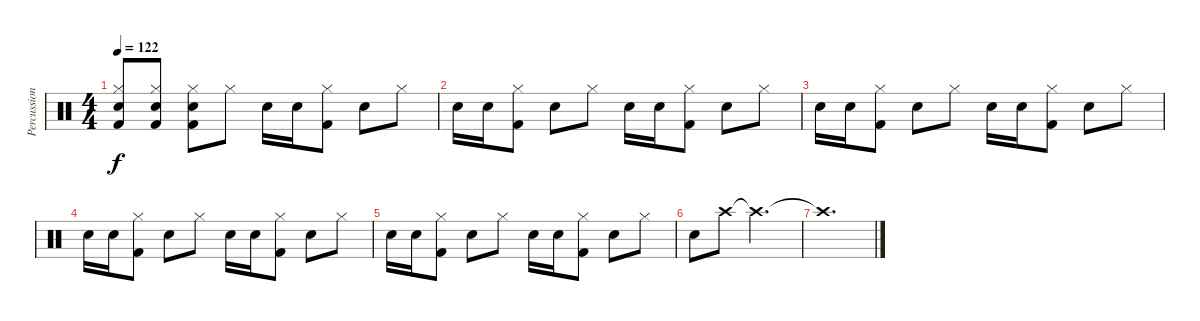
\track ("Percussion" "Percussion") {instrument percussion}
\staff {score}
\articulation defaults
\ts (4 4)
\tempo 122
\clef neutral
\ks c
("Snare (hit) 2" "Hi-Hat (closed)" "Kick (hit) 2").8{dy f} ("Snare (hit) 2" "Hi-Hat (closed)" "Kick (hit) 2").8 ("Snare (hit) 2" "Hi-Hat (closed)" "Kick (hit) 2").8 "Hi-Hat (closed)".8 "Snare (hit) 2".16 "Snare (hit) 2".16 ("Hi-Hat (closed)" "Kick (hit) 2").8 "Snare (hit) 2".8 "Hi-Hat (closed)".8 |
"Snare (hit) 2".16 "Snare (hit) 2".16 ("Hi-Hat (closed)" "Kick (hit) 2").8 "Snare (hit) 2".8 "Hi-Hat (closed)".8 "Snare (hit) 2".16 "Snare (hit) 2".16 ("Hi-Hat (closed)" "Kick (hit) 2").8 "Snare (hit) 2".8 "Hi-Hat (closed)".8 |
"Snare (hit) 2".16 "Snare (hit) 2".16 ("Hi-Hat (closed)" "Kick (hit) 2").8 "Snare (hit) 2".8 "Hi-Hat (closed)".8 "Snare (hit) 2".16 "Snare (hit) 2".16 ("Hi-Hat (closed)" "Kick (hit) 2").8 "Snare (hit) 2".8 "Hi-Hat (closed)".8 |
"Snare (hit) 2".16 "Snare (hit) 2".16 ("Hi-Hat (closed)" "Kick (hit) 2").8 "Snare (hit) 2".8 "Hi-Hat (closed)".8 "Snare (hit) 2".16 "Snare (hit) 2".16 ("Hi-Hat (closed)" "Kick (hit) 2").8 "Snare (hit) 2".8 "Hi-Hat (closed)".8 |
"Snare (hit) 2".16 "Snare (hit) 2".16 ("Hi-Hat (closed)" "Kick (hit) 2").8 "Snare (hit) 2".8 "Hi-Hat (closed)".8 "Snare (hit) 2".16 "Snare (hit) 2".16 ("Hi-Hat (closed)" "Kick (hit) 2").8 "Snare (hit) 2".8 "Hi-Hat (closed)".8 |
"Snare (hit) 2".8 "Crash high (hit)".8 "Crash high (hit)"{t}.2{d} |
"Crash high (hit)"{t}.1{d}
